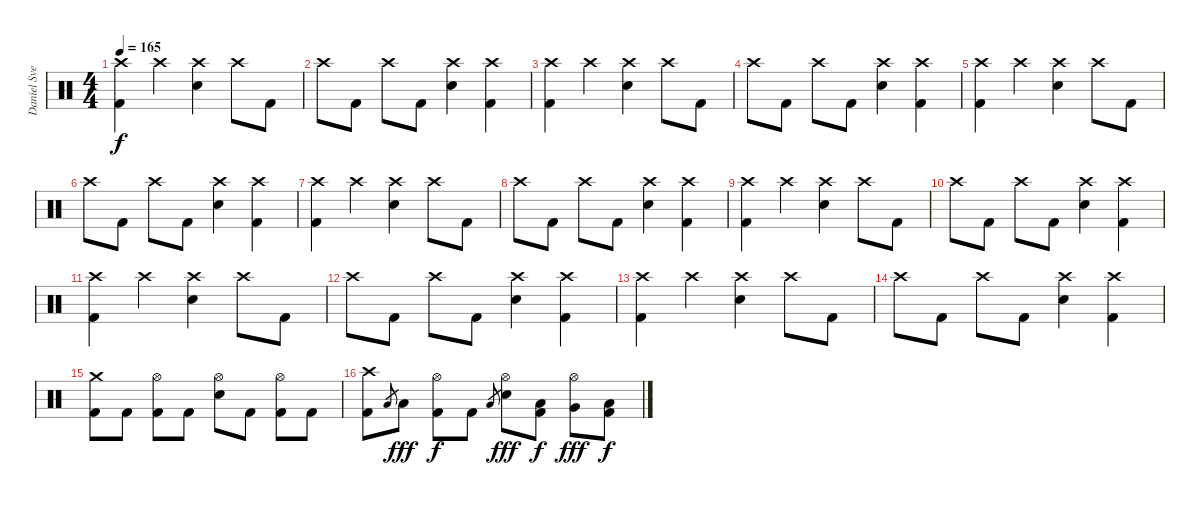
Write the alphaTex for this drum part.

\track ("Daniel Svensson" "Daniel Sve") {instrument percussion}
\staff {score}
\articulation defaults
\ts (4 4)
\tempo 165
\clef neutral
\ks c
("Crash high (hit)" "Kick (hit) 2").4{dy f} "Crash high (hit)".4 ("Crash high (hit)" "Electric Snare (hit)").4 "Crash high (hit)".8 "Kick (hit) 2".8 |
"Crash high (hit)".8 "Kick (hit) 2".8 "Crash high (hit)".8 "Kick (hit) 2".8 ("Crash high (hit)" "Electric Snare (hit)").4 ("Crash high (hit)" "Kick (hit) 2").4 |
("Crash high (hit)" "Kick (hit) 2").4 "Crash high (hit)".4 ("Crash high (hit)" "Electric Snare (hit)").4 "Crash high (hit)".8 "Kick (hit) 2".8 |
"Crash high (hit)".8 "Kick (hit) 2".8 "Crash high (hit)".8 "Kick (hit) 2".8 ("Crash high (hit)" "Electric Snare (hit)").4 ("Crash high (hit)" "Kick (hit) 2").4 |
("Crash high (hit)" "Kick (hit) 2").4 "Crash high (hit)".4 ("Crash high (hit)" "Electric Snare (hit)").4 "Crash high (hit)".8 "Kick (hit) 2".8 |
"Crash high (hit)".8 "Kick (hit) 2".8 "Crash high (hit)".8 "Kick (hit) 2".8 ("Crash high (hit)" "Electric Snare (hit)").4 ("Crash high (hit)" "Kick (hit) 2").4 |
("Crash high (hit)" "Kick (hit) 2").4 "Crash high (hit)".4 ("Crash high (hit)" "Electric Snare (hit)").4 "Crash high (hit)".8 "Kick (hit) 2".8 |
"Crash high (hit)".8 "Kick (hit) 2".8 "Crash high (hit)".8 "Kick (hit) 2".8 ("Crash high (hit)" "Electric Snare (hit)").4 ("Crash high (hit)" "Kick (hit) 2").4 |
("Crash high (hit)" "Kick (hit) 2").4 "Crash high (hit)".4 ("Crash high (hit)" "Electric Snare (hit)").4 "Crash high (hit)".8 "Kick (hit) 2".8 |
"Crash high (hit)".8 "Kick (hit) 2".8 "Crash high (hit)".8 "Kick (hit) 2".8 ("Crash high (hit)" "Electric Snare (hit)").4 ("Crash high (hit)" "Kick (hit) 2").4 |
("Crash high (hit)" "Kick (hit) 2").4 "Crash high (hit)".4 ("Crash high (hit)" "Electric Snare (hit)").4 "Crash high (hit)".8 "Kick (hit) 2".8 |
"Crash high (hit)".8 "Kick (hit) 2".8 "Crash high (hit)".8 "Kick (hit) 2".8 ("Crash high (hit)" "Electric Snare (hit)").4 ("Crash high (hit)" "Kick (hit) 2").4 |
("Crash high (hit)" "Kick (hit) 2").4 "Crash high (hit)".4 ("Crash high (hit)" "Electric Snare (hit)").4 "Crash high (hit)".8 "Kick (hit) 2".8 |
"Crash high (hit)".8 "Kick (hit) 2".8 "Crash high (hit)".8 "Kick (hit) 2".8 ("Crash high (hit)" "Electric Snare (hit)").4 ("Crash high (hit)" "Kick (hit) 2").4 |
("Crash medium (hit)" "Kick (hit) 2").8 "Kick (hit) 2".8 ("Hi-Hat (open)" "Kick (hit) 2").8 "Kick (hit) 2".8 ("Hi-Hat (open)" "Electric Snare (hit)").8 "Kick (hit) 2".8 ("Hi-Hat (open)" "Kick (hit) 2").8 "Kick (hit) 2".8 |
("Crash high (hit)" "Kick (hit) 2").8 "Low Tom (hit)".8{gr} "Low Tom (hit)".8{dy fff} ("Hi-Hat (open)" "Kick (hit) 2").8{dy f} "Kick (hit) 2".8 "Low Tom (hit)".8{gr} ("Hi-Hat (open)" "Electric Snare (hit)").8{dy fff} ("Low Tom (hit)" "Kick (hit) 2").8{dy f} ("Hi-Hat (open)" "Very Low Tom (hit)").8{dy fff} ("Low Floor Tom (hit)" "Kick (hit) 2").8{dy f}
